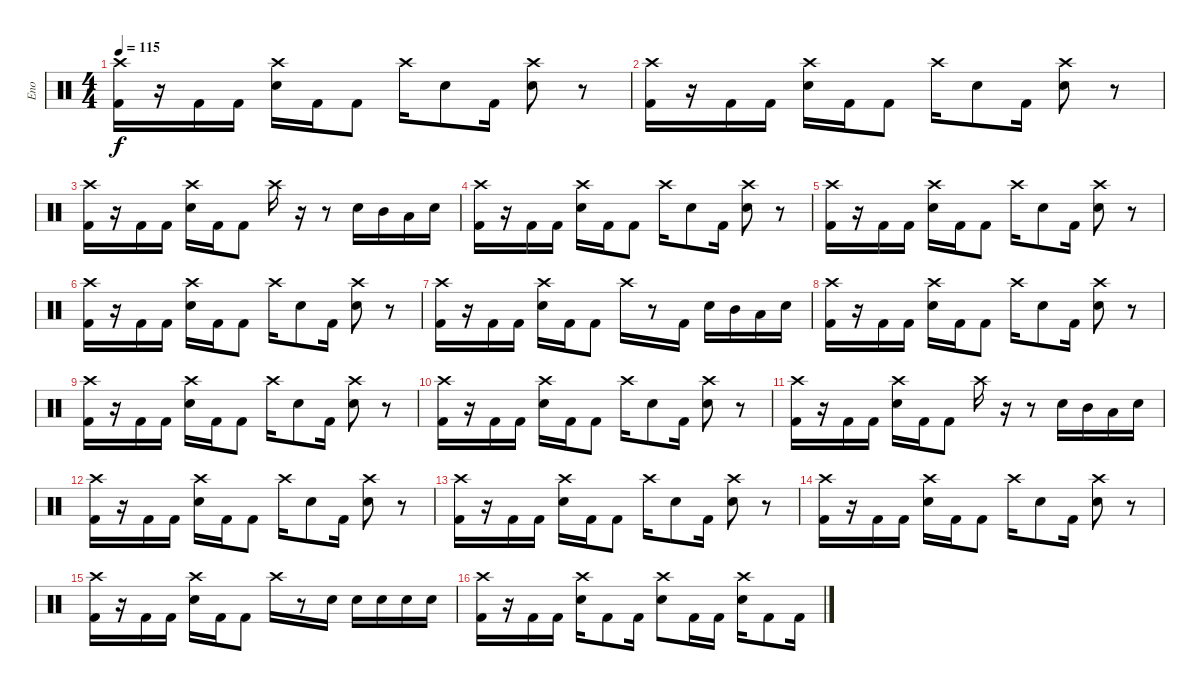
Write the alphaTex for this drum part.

\track ("Eno" "Eno") {instrument percussion}
\staff {score}
\articulation defaults
\ts (4 4)
\tempo 115
\clef neutral
\ks c
("Kick (hit) 2" "Crash high (hit)").16{dy f} r.16 "Kick (hit) 2".16 "Kick (hit) 2".16 ("Electric Snare (hit)" "Crash high (hit)").16 "Kick (hit) 2".16 "Kick (hit) 2".8 "Crash high (hit)".16 "Electric Snare (hit)".8 "Kick (hit) 2".16 ("Electric Snare (hit)" "Crash high (hit)").8 r.8 |
("Kick (hit) 2" "Crash high (hit)").16 r.16 "Kick (hit) 2".16 "Kick (hit) 2".16 ("Electric Snare (hit)" "Crash high (hit)").16 "Kick (hit) 2".16 "Kick (hit) 2".8 "Crash high (hit)".16 "Electric Snare (hit)".8 "Kick (hit) 2".16 ("Electric Snare (hit)" "Crash high (hit)").8 r.8 |
("Kick (hit) 2" "Crash high (hit)").16 r.16 "Kick (hit) 2".16 "Kick (hit) 2".16 ("Electric Snare (hit)" "Crash high (hit)").16 "Kick (hit) 2".16 "Kick (hit) 2".8 "Crash high (hit)".16 r.16 r.8 "Electric Snare (hit)".16 "Mid Tom (hit)".16 "Low Tom (hit)".16 "Electric Snare (hit)".16 |
("Kick (hit) 2" "Crash high (hit)").16 r.16 "Kick (hit) 2".16 "Kick (hit) 2".16 ("Electric Snare (hit)" "Crash high (hit)").16 "Kick (hit) 2".16 "Kick (hit) 2".8 "Crash high (hit)".16 "Electric Snare (hit)".8 "Kick (hit) 2".16 ("Electric Snare (hit)" "Crash high (hit)").8 r.8 |
("Kick (hit) 2" "Crash high (hit)").16 r.16 "Kick (hit) 2".16 "Kick (hit) 2".16 ("Electric Snare (hit)" "Crash high (hit)").16 "Kick (hit) 2".16 "Kick (hit) 2".8 "Crash high (hit)".16 "Electric Snare (hit)".8 "Kick (hit) 2".16 ("Electric Snare (hit)" "Crash high (hit)").8 r.8 |
("Kick (hit) 2" "Crash high (hit)").16 r.16 "Kick (hit) 2".16 "Kick (hit) 2".16 ("Electric Snare (hit)" "Crash high (hit)").16 "Kick (hit) 2".16 "Kick (hit) 2".8 "Crash high (hit)".16 "Electric Snare (hit)".8 "Kick (hit) 2".16 ("Electric Snare (hit)" "Crash high (hit)").8 r.8 |
("Kick (hit) 2" "Crash high (hit)").16 r.16 "Kick (hit) 2".16 "Kick (hit) 2".16 ("Electric Snare (hit)" "Crash high (hit)").16 "Kick (hit) 2".16 "Kick (hit) 2".8 "Crash high (hit)".16 r.8 "Kick (hit) 2".16 "Electric Snare (hit)".16 "Mid Tom (hit)".16 "Low Tom (hit)".16 "Electric Snare (hit)".16 |
("Kick (hit) 2" "Crash high (hit)").16 r.16 "Kick (hit) 2".16 "Kick (hit) 2".16 ("Electric Snare (hit)" "Crash high (hit)").16 "Kick (hit) 2".16 "Kick (hit) 2".8 "Crash high (hit)".16 "Electric Snare (hit)".8 "Kick (hit) 2".16 ("Electric Snare (hit)" "Crash high (hit)").8 r.8 |
("Kick (hit) 2" "Crash high (hit)").16 r.16 "Kick (hit) 2".16 "Kick (hit) 2".16 ("Electric Snare (hit)" "Crash high (hit)").16 "Kick (hit) 2".16 "Kick (hit) 2".8 "Crash high (hit)".16 "Electric Snare (hit)".8 "Kick (hit) 2".16 ("Electric Snare (hit)" "Crash high (hit)").8 r.8 |
("Kick (hit) 2" "Crash high (hit)").16 r.16 "Kick (hit) 2".16 "Kick (hit) 2".16 ("Electric Snare (hit)" "Crash high (hit)").16 "Kick (hit) 2".16 "Kick (hit) 2".8 "Crash high (hit)".16 "Electric Snare (hit)".8 "Kick (hit) 2".16 ("Electric Snare (hit)" "Crash high (hit)").8 r.8 |
("Kick (hit) 2" "Crash high (hit)").16 r.16 "Kick (hit) 2".16 "Kick (hit) 2".16 ("Electric Snare (hit)" "Crash high (hit)").16 "Kick (hit) 2".16 "Kick (hit) 2".8 "Crash high (hit)".16 r.16 r.8 "Electric Snare (hit)".16 "Mid Tom (hit)".16 "Low Tom (hit)".16 "Electric Snare (hit)".16 |
("Kick (hit) 2" "Crash high (hit)").16 r.16 "Kick (hit) 2".16 "Kick (hit) 2".16 ("Electric Snare (hit)" "Crash high (hit)").16 "Kick (hit) 2".16 "Kick (hit) 2".8 "Crash high (hit)".16 "Electric Snare (hit)".8 "Kick (hit) 2".16 ("Electric Snare (hit)" "Crash high (hit)").8 r.8 |
("Kick (hit) 2" "Crash high (hit)").16 r.16 "Kick (hit) 2".16 "Kick (hit) 2".16 ("Electric Snare (hit)" "Crash high (hit)").16 "Kick (hit) 2".16 "Kick (hit) 2".8 "Crash high (hit)".16 "Electric Snare (hit)".8 "Kick (hit) 2".16 ("Electric Snare (hit)" "Crash high (hit)").8 r.8 |
("Kick (hit) 2" "Crash high (hit)").16 r.16 "Kick (hit) 2".16 "Kick (hit) 2".16 ("Electric Snare (hit)" "Crash high (hit)").16 "Kick (hit) 2".16 "Kick (hit) 2".8 "Crash high (hit)".16 "Electric Snare (hit)".8 "Kick (hit) 2".16 ("Electric Snare (hit)" "Crash high (hit)").8 r.8 |
("Kick (hit) 2" "Crash high (hit)").16 r.16 "Kick (hit) 2".16 "Kick (hit) 2".16 ("Electric Snare (hit)" "Crash high (hit)").16 "Kick (hit) 2".16 "Kick (hit) 2".8 "Crash high (hit)".16 r.8 "Electric Snare (hit)".16 "Electric Snare (hit)".16 "Electric Snare (hit)".16 "Electric Snare (hit)".16 "Electric Snare (hit)".16 |
("Kick (hit) 2" "Crash high (hit)").16 r.16 "Kick (hit) 2".16 "Kick (hit) 2".16 ("Electric Snare (hit)" "Crash high (hit)").16 "Kick (hit) 2".8 "Kick (hit) 2".16 ("Electric Snare (hit)" "Crash high (hit)").8 "Kick (hit) 2".16 "Kick (hit) 2".16 ("Electric Snare (hit)" "Crash high (hit)").16 "Kick (hit) 2".8 "Kick (hit) 2".16
